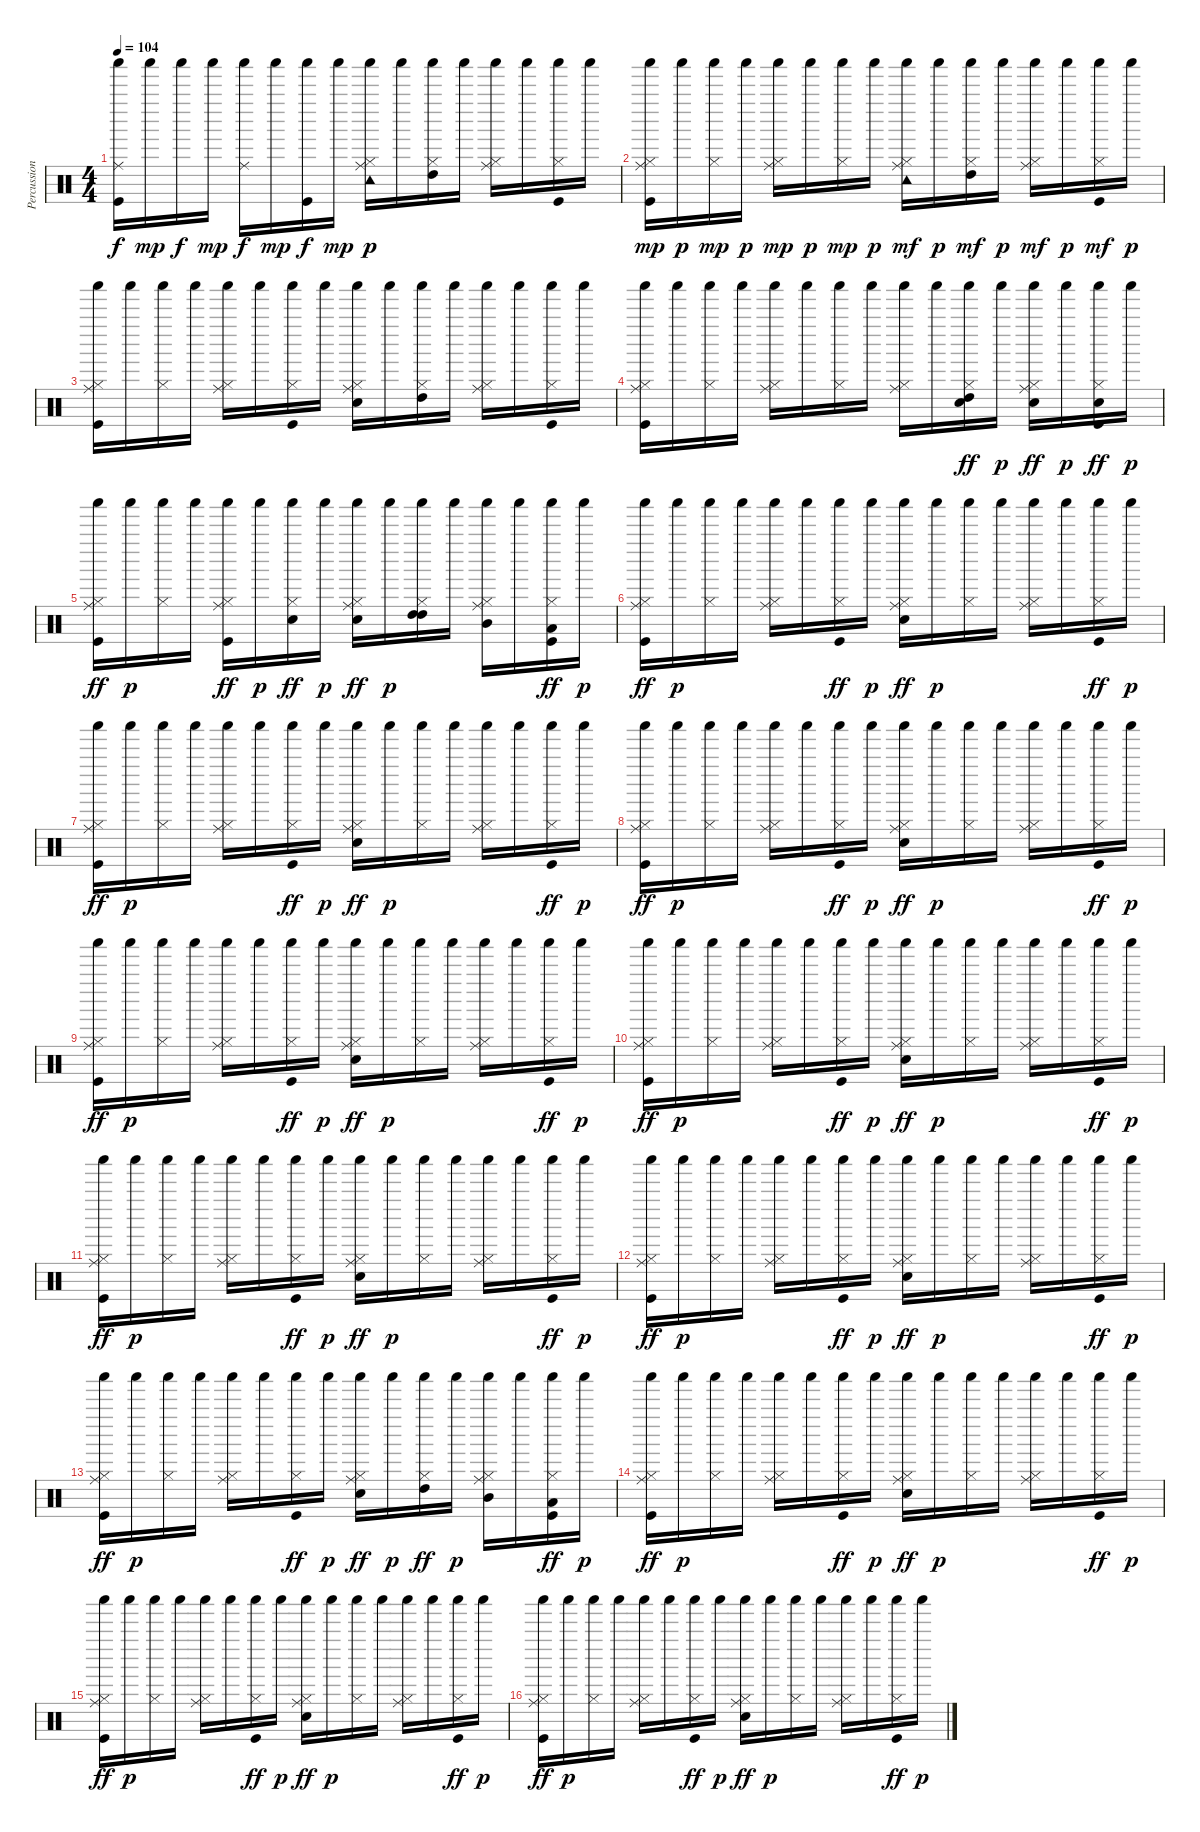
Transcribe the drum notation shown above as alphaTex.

\track ("Percussioni" "Percussion") {instrument percussion}
\staff {score}
\articulation defaults
\ts (4 4)
\tempo 104
\clef neutral
\ks c
("Ride (middle)" "Shaker (hit)" "Kick (hit)").16{dy f} "Shaker (hit)".16{dy mp} "Shaker (hit)".16{dy f} "Shaker (hit)".16{dy mp} ("Ride (middle)" "Shaker (hit)").16{dy f} "Shaker (hit)".16{dy mp} ("Shaker (hit)" "Kick (hit)").16{dy f} "Shaker (hit)".16{dy mp} ("Ride (middle)" "Shaker (hit)" "Hi-Hat (closed)" "Tambourine (hit)").16{dy p} "Shaker (hit)".16 ("High Tom (hit)" "Shaker (hit)" "Hi-Hat (closed)").16 "Shaker (hit)".16 ("Ride (middle)" "Shaker (hit)" "Hi-Hat (closed)").16 "Shaker (hit)".16 ("Shaker (hit)" "Hi-Hat (closed)" "Kick (hit)").16 "Shaker (hit)".16 |
("Ride (middle)" "Shaker (hit)" "Hi-Hat (closed)" "Kick (hit)").16{dy mp} "Shaker (hit)".16{dy p} ("Shaker (hit)" "Hi-Hat (closed)").16{dy mp} "Shaker (hit)".16{dy p} ("Ride (middle)" "Shaker (hit)" "Hi-Hat (closed)").16{dy mp} "Shaker (hit)".16{dy p} ("Shaker (hit)" "Hi-Hat (closed)").16{dy mp} "Shaker (hit)".16{dy p} ("Ride (middle)" "Shaker (hit)" "Hi-Hat (closed)" "Tambourine (hit)").16{dy mf} "Shaker (hit)".16{dy p} ("High Tom (hit)" "Shaker (hit)" "Hi-Hat (closed)").16{dy mf} "Shaker (hit)".16{dy p} ("Ride (middle)" "Shaker (hit)" "Hi-Hat (closed)").16{dy mf} "Shaker (hit)".16{dy p} ("Shaker (hit)" "Hi-Hat (closed)" "Kick (hit)").16{dy mf} "Shaker (hit)".16{dy p} |
("Ride (middle)" "Shaker (hit)" "Hi-Hat (closed)" "Kick (hit)").16 "Shaker (hit)".16 ("Shaker (hit)" "Hi-Hat (closed)").16 "Shaker (hit)".16 ("Ride (middle)" "Shaker (hit)" "Hi-Hat (closed)").16 "Shaker (hit)".16 ("Shaker (hit)" "Hi-Hat (closed)" "Kick (hit)").16 "Shaker (hit)".16 ("Ride (middle)" "Shaker (hit)" "Hi-Hat (closed)" "Snare (hit) 2").16 "Shaker (hit)".16 ("High Tom (hit)" "Shaker (hit)" "Hi-Hat (closed)").16 "Shaker (hit)".16 ("Ride (middle)" "Shaker (hit)" "Hi-Hat (closed)").16 "Shaker (hit)".16 ("Shaker (hit)" "Hi-Hat (closed)" "Kick (hit)").16 "Shaker (hit)".16 |
("Ride (middle)" "Shaker (hit)" "Hi-Hat (closed)" "Kick (hit)").16 "Shaker (hit)".16 ("Shaker (hit)" "Hi-Hat (closed)").16 "Shaker (hit)".16 ("Ride (middle)" "Shaker (hit)" "Hi-Hat (closed)").16 "Shaker (hit)".16 ("Shaker (hit)" "Hi-Hat (closed)").16 "Shaker (hit)".16 ("Ride (middle)" "Shaker (hit)" "Hi-Hat (closed)").16 "Shaker (hit)".16 ("High Tom (hit)" "Shaker (hit)" "Hi-Hat (closed)" "Snare (hit) 2").16{dy ff} "Shaker (hit)".16{dy p} ("Ride (middle)" "Shaker (hit)" "Hi-Hat (closed)" "Snare (hit) 2").16{dy ff} "Shaker (hit)".16{dy p} ("Shaker (hit)" "Hi-Hat (closed)" "Snare (hit) 2" "Kick (hit)").16{dy ff} "Shaker (hit)".16{dy p} |
("Ride (middle)" "Shaker (hit)" "Hi-Hat (closed)" "Kick (hit)").16{dy ff} "Shaker (hit)".16{dy p} ("Shaker (hit)" "Hi-Hat (closed)").16 "Shaker (hit)".16 ("Ride (middle)" "Shaker (hit)" "Hi-Hat (closed)" "Kick (hit)").16{dy ff} "Shaker (hit)".16{dy p} ("Shaker (hit)" "Hi-Hat (closed)" "Snare (hit) 2").16{dy ff} "Shaker (hit)".16{dy p} ("Ride (middle)" "Shaker (hit)" "Hi-Hat (closed)" "Snare (hit) 2").16{dy ff} "Shaker (hit)".16{dy p} ("High Tom (hit)" "High Tom (hit)" "Shaker (hit)" "Hi-Hat (closed)").16 "Shaker (hit)".16 ("Ride (middle)" "Mid Tom (hit)" "Shaker (hit)" "Hi-Hat (closed)").16 "Shaker (hit)".16 ("Low Tom (hit)" "Shaker (hit)" "Hi-Hat (closed)" "Kick (hit)").16{dy ff} "Shaker (hit)".16{dy p} |
("Ride (middle)" "Shaker (hit)" "Hi-Hat (closed)" "Kick (hit)").16{dy ff} "Shaker (hit)".16{dy p} ("Shaker (hit)" "Hi-Hat (closed)").16 "Shaker (hit)".16 ("Ride (middle)" "Shaker (hit)" "Hi-Hat (closed)").16 "Shaker (hit)".16 ("Shaker (hit)" "Hi-Hat (closed)" "Kick (hit)").16{dy ff} "Shaker (hit)".16{dy p} ("Ride (middle)" "Shaker (hit)" "Hi-Hat (closed)" "Snare (hit) 2").16{dy ff} "Shaker (hit)".16{dy p} ("Shaker (hit)" "Hi-Hat (closed)").16 "Shaker (hit)".16 ("Ride (middle)" "Shaker (hit)" "Hi-Hat (closed)").16 "Shaker (hit)".16 ("Shaker (hit)" "Hi-Hat (closed)" "Kick (hit)").16{dy ff} "Shaker (hit)".16{dy p} |
("Ride (middle)" "Shaker (hit)" "Hi-Hat (closed)" "Kick (hit)").16{dy ff} "Shaker (hit)".16{dy p} ("Shaker (hit)" "Hi-Hat (closed)").16 "Shaker (hit)".16 ("Ride (middle)" "Shaker (hit)" "Hi-Hat (closed)").16 "Shaker (hit)".16 ("Shaker (hit)" "Hi-Hat (closed)" "Kick (hit)").16{dy ff} "Shaker (hit)".16{dy p} ("Ride (middle)" "Shaker (hit)" "Hi-Hat (closed)" "Snare (hit) 2").16{dy ff} "Shaker (hit)".16{dy p} ("Shaker (hit)" "Hi-Hat (closed)").16 "Shaker (hit)".16 ("Ride (middle)" "Shaker (hit)" "Hi-Hat (closed)").16 "Shaker (hit)".16 ("Shaker (hit)" "Hi-Hat (closed)" "Kick (hit)").16{dy ff} "Shaker (hit)".16{dy p} |
("Ride (middle)" "Shaker (hit)" "Hi-Hat (closed)" "Kick (hit)").16{dy ff} "Shaker (hit)".16{dy p} ("Shaker (hit)" "Hi-Hat (closed)").16 "Shaker (hit)".16 ("Ride (middle)" "Shaker (hit)" "Hi-Hat (closed)").16 "Shaker (hit)".16 ("Shaker (hit)" "Hi-Hat (closed)" "Kick (hit)").16{dy ff} "Shaker (hit)".16{dy p} ("Ride (middle)" "Shaker (hit)" "Hi-Hat (closed)" "Snare (hit) 2").16{dy ff} "Shaker (hit)".16{dy p} ("Shaker (hit)" "Hi-Hat (closed)").16 "Shaker (hit)".16 ("Ride (middle)" "Shaker (hit)" "Hi-Hat (closed)").16 "Shaker (hit)".16 ("Shaker (hit)" "Hi-Hat (closed)" "Kick (hit)").16{dy ff} "Shaker (hit)".16{dy p} |
("Ride (middle)" "Shaker (hit)" "Hi-Hat (closed)" "Kick (hit)").16{dy ff} "Shaker (hit)".16{dy p} ("Shaker (hit)" "Hi-Hat (closed)").16 "Shaker (hit)".16 ("Ride (middle)" "Shaker (hit)" "Hi-Hat (closed)").16 "Shaker (hit)".16 ("Shaker (hit)" "Hi-Hat (closed)" "Kick (hit)").16{dy ff} "Shaker (hit)".16{dy p} ("Ride (middle)" "Shaker (hit)" "Hi-Hat (closed)" "Snare (hit) 2").16{dy ff} "Shaker (hit)".16{dy p} ("Shaker (hit)" "Hi-Hat (closed)").16 "Shaker (hit)".16 ("Ride (middle)" "Shaker (hit)" "Hi-Hat (closed)").16 "Shaker (hit)".16 ("Shaker (hit)" "Hi-Hat (closed)" "Kick (hit)").16{dy ff} "Shaker (hit)".16{dy p} |
("Ride (middle)" "Shaker (hit)" "Hi-Hat (closed)" "Kick (hit)").16{dy ff} "Shaker (hit)".16{dy p} ("Shaker (hit)" "Hi-Hat (closed)").16 "Shaker (hit)".16 ("Ride (middle)" "Shaker (hit)" "Hi-Hat (closed)").16 "Shaker (hit)".16 ("Shaker (hit)" "Hi-Hat (closed)" "Kick (hit)").16{dy ff} "Shaker (hit)".16{dy p} ("Ride (middle)" "Shaker (hit)" "Hi-Hat (closed)" "Snare (hit) 2").16{dy ff} "Shaker (hit)".16{dy p} ("Shaker (hit)" "Hi-Hat (closed)").16 "Shaker (hit)".16 ("Ride (middle)" "Shaker (hit)" "Hi-Hat (closed)").16 "Shaker (hit)".16 ("Shaker (hit)" "Hi-Hat (closed)" "Kick (hit)").16{dy ff} "Shaker (hit)".16{dy p} |
("Ride (middle)" "Shaker (hit)" "Hi-Hat (closed)" "Kick (hit)").16{dy ff} "Shaker (hit)".16{dy p} ("Shaker (hit)" "Hi-Hat (closed)").16 "Shaker (hit)".16 ("Ride (middle)" "Shaker (hit)" "Hi-Hat (closed)").16 "Shaker (hit)".16 ("Shaker (hit)" "Hi-Hat (closed)" "Kick (hit)").16{dy ff} "Shaker (hit)".16{dy p} ("Ride (middle)" "Shaker (hit)" "Hi-Hat (closed)" "Snare (hit) 2").16{dy ff} "Shaker (hit)".16{dy p} ("Shaker (hit)" "Hi-Hat (closed)").16 "Shaker (hit)".16 ("Ride (middle)" "Shaker (hit)" "Hi-Hat (closed)").16 "Shaker (hit)".16 ("Shaker (hit)" "Hi-Hat (closed)" "Kick (hit)").16{dy ff} "Shaker (hit)".16{dy p} |
("Ride (middle)" "Shaker (hit)" "Hi-Hat (closed)" "Kick (hit)").16{dy ff} "Shaker (hit)".16{dy p} ("Shaker (hit)" "Hi-Hat (closed)").16 "Shaker (hit)".16 ("Ride (middle)" "Shaker (hit)" "Hi-Hat (closed)").16 "Shaker (hit)".16 ("Shaker (hit)" "Hi-Hat (closed)" "Kick (hit)").16{dy ff} "Shaker (hit)".16{dy p} ("Ride (middle)" "Shaker (hit)" "Hi-Hat (closed)" "Snare (hit) 2").16{dy ff} "Shaker (hit)".16{dy p} ("Shaker (hit)" "Hi-Hat (closed)").16 "Shaker (hit)".16 ("Ride (middle)" "Shaker (hit)" "Hi-Hat (closed)").16 "Shaker (hit)".16 ("Shaker (hit)" "Hi-Hat (closed)" "Kick (hit)").16{dy ff} "Shaker (hit)".16{dy p} |
("Ride (middle)" "Shaker (hit)" "Hi-Hat (closed)" "Kick (hit)").16{dy ff} "Shaker (hit)".16{dy p} ("Shaker (hit)" "Hi-Hat (closed)").16 "Shaker (hit)".16 ("Ride (middle)" "Shaker (hit)" "Hi-Hat (closed)").16 "Shaker (hit)".16 ("Shaker (hit)" "Hi-Hat (closed)" "Kick (hit)").16{dy ff} "Shaker (hit)".16{dy p} ("Ride (middle)" "Shaker (hit)" "Hi-Hat (closed)" "Snare (hit) 2").16{dy ff} "Shaker (hit)".16{dy p} ("High Tom (hit)" "Shaker (hit)" "Hi-Hat (closed)").16{dy ff} "Shaker (hit)".16{dy p} ("Ride (middle)" "Mid Tom (hit)" "Shaker (hit)" "Hi-Hat (closed)").16 "Shaker (hit)".16 ("Low Tom (hit)" "Shaker (hit)" "Hi-Hat (closed)" "Kick (hit)").16{dy ff} "Shaker (hit)".16{dy p} |
("Ride (middle)" "Shaker (hit)" "Hi-Hat (closed)" "Kick (hit)").16{dy ff} "Shaker (hit)".16{dy p} ("Shaker (hit)" "Hi-Hat (closed)").16 "Shaker (hit)".16 ("Ride (middle)" "Shaker (hit)" "Hi-Hat (closed)").16 "Shaker (hit)".16 ("Shaker (hit)" "Hi-Hat (closed)" "Kick (hit)").16{dy ff} "Shaker (hit)".16{dy p} ("Ride (middle)" "Shaker (hit)" "Hi-Hat (closed)" "Snare (hit) 2").16{dy ff} "Shaker (hit)".16{dy p} ("Shaker (hit)" "Hi-Hat (closed)").16 "Shaker (hit)".16 ("Ride (middle)" "Shaker (hit)" "Hi-Hat (closed)").16 "Shaker (hit)".16 ("Shaker (hit)" "Hi-Hat (closed)" "Kick (hit)").16{dy ff} "Shaker (hit)".16{dy p} |
("Ride (middle)" "Shaker (hit)" "Hi-Hat (closed)" "Kick (hit)").16{dy ff} "Shaker (hit)".16{dy p} ("Shaker (hit)" "Hi-Hat (closed)").16 "Shaker (hit)".16 ("Ride (middle)" "Shaker (hit)" "Hi-Hat (closed)").16 "Shaker (hit)".16 ("Shaker (hit)" "Hi-Hat (closed)" "Kick (hit)").16{dy ff} "Shaker (hit)".16{dy p} ("Ride (middle)" "Shaker (hit)" "Hi-Hat (closed)" "Snare (hit) 2").16{dy ff} "Shaker (hit)".16{dy p} ("Shaker (hit)" "Hi-Hat (closed)").16 "Shaker (hit)".16 ("Ride (middle)" "Shaker (hit)" "Hi-Hat (closed)").16 "Shaker (hit)".16 ("Shaker (hit)" "Hi-Hat (closed)" "Kick (hit)").16{dy ff} "Shaker (hit)".16{dy p} |
("Ride (middle)" "Shaker (hit)" "Hi-Hat (closed)" "Kick (hit)").16{dy ff} "Shaker (hit)".16{dy p} ("Shaker (hit)" "Hi-Hat (closed)").16 "Shaker (hit)".16 ("Ride (middle)" "Shaker (hit)" "Hi-Hat (closed)").16 "Shaker (hit)".16 ("Shaker (hit)" "Hi-Hat (closed)" "Kick (hit)").16{dy ff} "Shaker (hit)".16{dy p} ("Ride (middle)" "Shaker (hit)" "Hi-Hat (closed)" "Snare (hit) 2").16{dy ff} "Shaker (hit)".16{dy p} ("Shaker (hit)" "Hi-Hat (closed)").16 "Shaker (hit)".16 ("Ride (middle)" "Shaker (hit)" "Hi-Hat (closed)").16 "Shaker (hit)".16 ("Shaker (hit)" "Hi-Hat (closed)" "Kick (hit)").16{dy ff} "Shaker (hit)".16{dy p}
